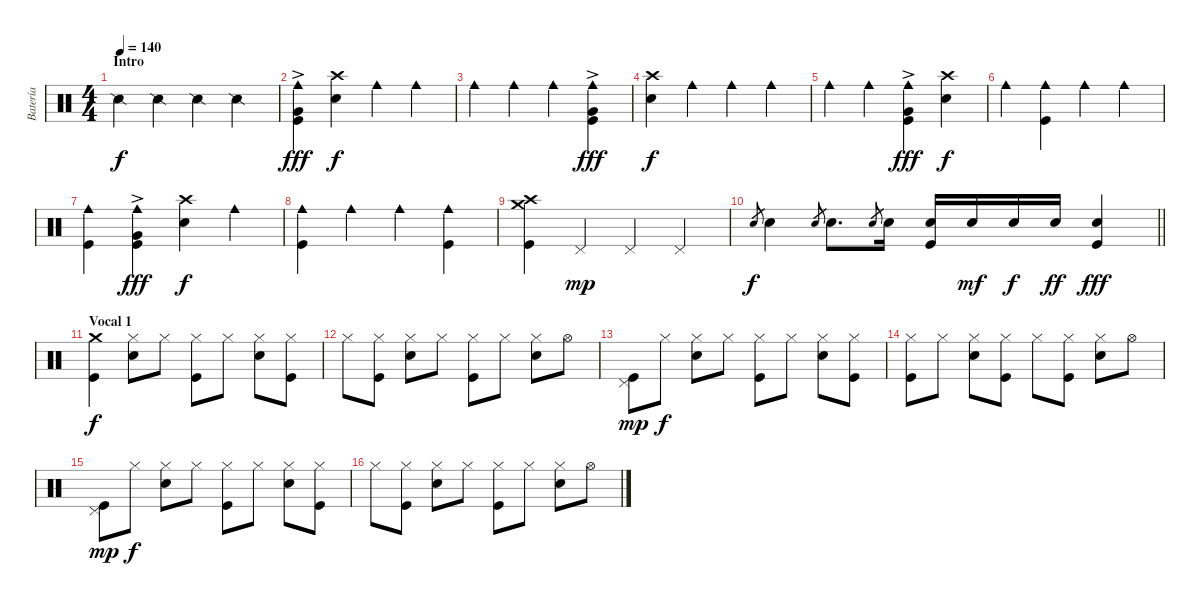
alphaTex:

\track ("Batería" "Batería") {instrument percussion}
\staff {score}
\articulation defaults
\ts (4 4)
\section ("" "Intro")
\tempo 140
\clef neutral
\ks c "Snare (side stick) 2".4{dy f} "Snare (side stick) 2".4 "Snare (side stick) 2".4 "Snare (side stick) 2".4
|
("Kick (hit)" "Very Low Tom (hit)"{ac} "Cowbell medium (hit)").4{dy fff} ("Electric Snare (hit)" "Crash high (hit)").4{dy f} "Cowbell medium (hit)".4 "Cowbell medium (hit)".4 |
"Cowbell medium (hit)".4 "Cowbell medium (hit)".4 "Cowbell medium (hit)".4 ("Kick (hit)" "Very Low Tom (hit)"{ac} "Cowbell medium (hit)").4{dy fff} |
("Electric Snare (hit)" "Crash high (hit)").4{dy f} "Cowbell medium (hit)".4 "Cowbell medium (hit)".4 "Cowbell medium (hit)".4 |
"Cowbell medium (hit)".4 "Cowbell medium (hit)".4 ("Kick (hit)" "Very Low Tom (hit)"{ac} "Cowbell medium (hit)").4{dy fff} ("Electric Snare (hit)" "Crash high (hit)").4{dy f} |
"Cowbell medium (hit)".4 ("Kick (hit)" "Cowbell medium (hit)").4 "Cowbell medium (hit)".4 "Cowbell medium (hit)".4 |
("Kick (hit)" "Cowbell medium (hit)").4 ("Kick (hit)" "Very Low Tom (hit)"{ac} "Cowbell medium (hit)").4{dy fff} ("Electric Snare (hit)" "Crash high (hit)").4{dy f} "Cowbell medium (hit)".4 |
("Kick (hit)" "Cowbell medium (hit)").4 "Cowbell medium (hit)".4 "Cowbell medium (hit)".4 ("Kick (hit)" "Cowbell medium (hit)").4 |
("Kick (hit)" "Crash medium (hit)" "Crash high (hit)").4 "Pedal Hi-Hat (hit)".4{dy mp} "Pedal Hi-Hat (hit)".4 "Pedal Hi-Hat (hit)".4 |
\barLineRight lightlight "Electric Snare (hit)".8{gr dy f} "Electric Snare (hit)".4 "Electric Snare (hit)".8{gr} "Electric Snare (hit)".8{d} "Electric Snare (hit)".8{gr} "Electric Snare (hit)".16
("Kick (hit)" "Electric Snare (hit)").16 "Electric Snare (hit)".16{dy mf} "Electric Snare (hit)".16{dy f} "Electric Snare (hit)".16{dy ff} ("Kick (hit)" "Electric Snare (hit)").4{dy fff} |
\section ("" "Vocal 1")
("Kick (hit)" "Crash medium (hit)").4{dy f} ("Electric Snare (hit)" "Hi-Hat (closed)").8 "Hi-Hat (closed)".8 ("Kick (hit)" "Hi-Hat (closed)").8 "Hi-Hat (closed)".8 ("Electric Snare (hit)" "Hi-Hat (closed)").8 ("Kick (hit)" "Hi-Hat (closed)").8 |
"Hi-Hat (closed)".8 ("Kick (hit)" "Hi-Hat (closed)").8 ("Electric Snare (hit)" "Hi-Hat (closed)").8 "Hi-Hat (closed)".8 ("Kick (hit)" "Hi-Hat (closed)").8 "Hi-Hat (closed)".8 ("Electric Snare (hit)" "Hi-Hat (closed)").8 "Hi-Hat (open)".8 |
("Kick (hit)" "Pedal Hi-Hat (hit)").8{dy mp} "Hi-Hat (closed)".8{dy f} ("Electric Snare (hit)" "Hi-Hat (closed)").8 "Hi-Hat (closed)".8 ("Kick (hit)" "Hi-Hat (closed)").8 "Hi-Hat (closed)".8 ("Electric Snare (hit)" "Hi-Hat (closed)").8 ("Kick (hit)" "Hi-Hat (closed)").8 |
("Kick (hit)" "Hi-Hat (closed)").8 "Hi-Hat (closed)".8 ("Electric Snare (hit)" "Hi-Hat (closed)").8 ("Kick (hit)" "Hi-Hat (closed)").8 "Hi-Hat (closed)".8 ("Kick (hit)" "Hi-Hat (closed)").8 ("Electric Snare (hit)" "Hi-Hat (closed)").8 "Hi-Hat (open)".8 |
("Kick (hit)" "Pedal Hi-Hat (hit)").8{dy mp} "Hi-Hat (closed)".8{dy f} ("Electric Snare (hit)" "Hi-Hat (closed)").8 "Hi-Hat (closed)".8 ("Kick (hit)" "Hi-Hat (closed)").8 "Hi-Hat (closed)".8 ("Electric Snare (hit)" "Hi-Hat (closed)").8 ("Kick (hit)" "Hi-Hat (closed)").8 |
"Hi-Hat (closed)".8 ("Kick (hit)" "Hi-Hat (closed)").8 ("Electric Snare (hit)" "Hi-Hat (closed)").8 "Hi-Hat (closed)".8 ("Kick (hit)" "Hi-Hat (closed)").8 "Hi-Hat (closed)".8 ("Electric Snare (hit)" "Hi-Hat (closed)").8 "Hi-Hat (open)".8
